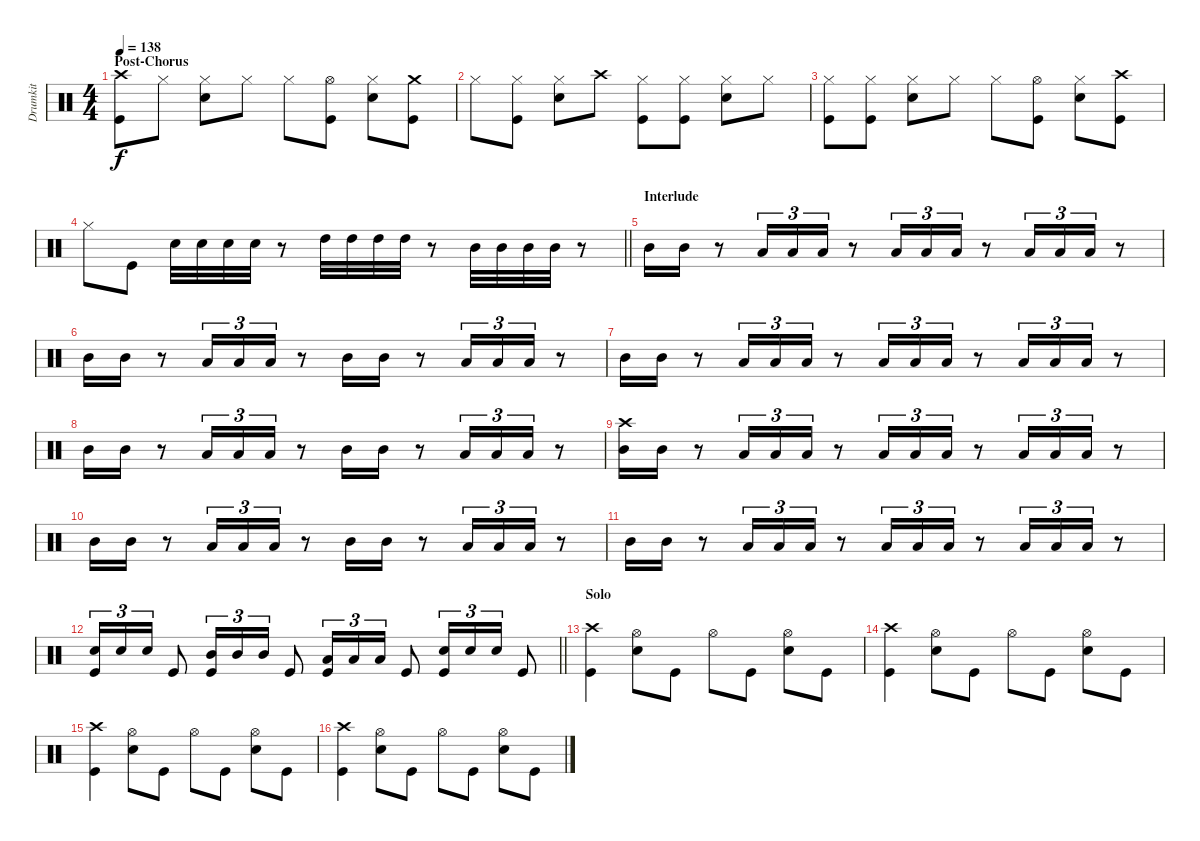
\track ("Drumkit" "Drumkit") {instrument percussion}
\staff {score}
\articulation defaults
\ts (4 4)
\section ("" "Post-Chorus")
\tempo 138
\clef neutral
\ks c
("Kick (hit)" "Crash high (hit)").8{dy f} "Hi-Hat (closed)".8 ("Snare (hit) 2" "Hi-Hat (closed)").8 "Hi-Hat (closed)".8 "Hi-Hat (closed)".8 ("Kick (hit)" "Hi-Hat (open)").8 ("Snare (hit) 2" "Hi-Hat (closed)").8 ("Kick (hit)" "Crash medium (hit)").8 |
"Hi-Hat (closed)".8 ("Hi-Hat (closed)" "Kick (hit)").8 ("Hi-Hat (closed)" "Snare (hit) 2").8 "Crash high (hit)".8 ("Hi-Hat (closed)" "Kick (hit)").8 ("Hi-Hat (closed)" "Kick (hit)").8 ("Snare (hit) 2" "Hi-Hat (closed)").8 "Hi-Hat (closed)".8 |
("Hi-Hat (closed)" "Kick (hit)").8 ("Hi-Hat (closed)" "Kick (hit)").8 ("Hi-Hat (closed)" "Snare (hit) 2").8 "Hi-Hat (closed)".8 "Hi-Hat (closed)".8 ("Hi-Hat (open)" "Kick (hit)").8 ("Hi-Hat (closed)" "Snare (hit) 2").8 ("Crash high (hit)" "Kick (hit)").8 |
\barLineRight lightlight "Hi-Hat (closed)".8 "Kick (hit)".8 "Snare (hit) 2".32 "Snare (hit) 2".32 "Snare (hit) 2".32 "Snare (hit) 2".32
r.8 "High Tom (hit)".32 "High Tom (hit)".32 "High Tom (hit)".32 "High Tom (hit)".32 r.8 "Mid Tom (hit)".32 "Mid Tom (hit)".32 "Mid Tom (hit)".32 "Mid Tom (hit)".32 r.8 |
\section ("" "Interlude")
"Mid Tom (hit)".16 "Mid Tom (hit)".16 r.8 "Low Tom (hit)".16{tu (3 2)} "Low Tom (hit)".16{tu (3 2)} "Low Tom (hit)".16{tu (3 2)} r.8 "Low Tom (hit)".16{tu (3 2)} "Low Tom (hit)".16{tu (3 2)} "Low Tom (hit)".16{tu (3 2)} r.8 "Low Tom (hit)".16{tu (3 2)} "Low Tom (hit)".16{tu (3 2)} "Low Tom (hit)".16{tu (3 2)} r.8 |
"Mid Tom (hit)".16 "Mid Tom (hit)".16 r.8 "Low Tom (hit)".16{tu (3 2)} "Low Tom (hit)".16{tu (3 2)} "Low Tom (hit)".16{tu (3 2)} r.8 "Mid Tom (hit)".16 "Mid Tom (hit)".16 r.8 "Low Tom (hit)".16{tu (3 2)} "Low Tom (hit)".16{tu (3 2)} "Low Tom (hit)".16{tu (3 2)} r.8 |
"Mid Tom (hit)".16 "Mid Tom (hit)".16 r.8 "Low Tom (hit)".16{tu (3 2)} "Low Tom (hit)".16{tu (3 2)} "Low Tom (hit)".16{tu (3 2)} r.8 "Low Tom (hit)".16{tu (3 2)} "Low Tom (hit)".16{tu (3 2)} "Low Tom (hit)".16{tu (3 2)} r.8 "Low Tom (hit)".16{tu (3 2)} "Low Tom (hit)".16{tu (3 2)} "Low Tom (hit)".16{tu (3 2)} r.8 |
"Mid Tom (hit)".16 "Mid Tom (hit)".16 r.8 "Low Tom (hit)".16{tu (3 2)} "Low Tom (hit)".16{tu (3 2)} "Low Tom (hit)".16{tu (3 2)} r.8 "Mid Tom (hit)".16 "Mid Tom (hit)".16 r.8 "Low Tom (hit)".16{tu (3 2)} "Low Tom (hit)".16{tu (3 2)} "Low Tom (hit)".16{tu (3 2)} r.8 |
("Mid Tom (hit)" "Crash high (hit)").16 "Mid Tom (hit)".16 r.8 "Low Tom (hit)".16{tu (3 2)} "Low Tom (hit)".16{tu (3 2)} "Low Tom (hit)".16{tu (3 2)} r.8 "Low Tom (hit)".16{tu (3 2)} "Low Tom (hit)".16{tu (3 2)} "Low Tom (hit)".16{tu (3 2)} r.8 "Low Tom (hit)".16{tu (3 2)} "Low Tom (hit)".16{tu (3 2)} "Low Tom (hit)".16{tu (3 2)} r.8 |
"Mid Tom (hit)".16 "Mid Tom (hit)".16 r.8 "Low Tom (hit)".16{tu (3 2)} "Low Tom (hit)".16{tu (3 2)} "Low Tom (hit)".16{tu (3 2)} r.8 "Mid Tom (hit)".16 "Mid Tom (hit)".16 r.8 "Low Tom (hit)".16{tu (3 2)} "Low Tom (hit)".16{tu (3 2)} "Low Tom (hit)".16{tu (3 2)} r.8 |
"Mid Tom (hit)".16 "Mid Tom (hit)".16 r.8 "Low Tom (hit)".16{tu (3 2)} "Low Tom (hit)".16{tu (3 2)} "Low Tom (hit)".16{tu (3 2)} r.8 "Low Tom (hit)".16{tu (3 2)} "Low Tom (hit)".16{tu (3 2)} "Low Tom (hit)".16{tu (3 2)} r.8 "Low Tom (hit)".16{tu (3 2)} "Low Tom (hit)".16{tu (3 2)} "Low Tom (hit)".16{tu (3 2)} r.8 |
\barLineRight lightlight
("Snare (hit) 2" "Kick (hit)").16{tu (3 2)} "Snare (hit) 2".16{tu (3 2)} "Snare (hit) 2".16{tu (3 2)} "Kick (hit)".8 ("Mid Tom (hit)" "Kick (hit)").16{tu (3 2)} "Mid Tom (hit)".16{tu (3 2)} "Mid Tom (hit)".16{tu (3 2)} "Kick (hit)".8 ("Low Tom (hit)" "Kick (hit)").16{tu (3 2)} "Low Tom (hit)".16{tu (3 2)} "Low Tom (hit)".16{tu (3 2)} "Kick (hit)".8 ("Snare (hit) 2" "Kick (hit)").16{tu (3 2)} "Snare (hit) 2".16{tu (3 2)} "Snare (hit) 2".16{tu (3 2)} "Kick (hit)".8 |
\section ("" "Solo")
("Kick (hit)" "Crash high (hit)").4 ("Snare (hit) 2" "Hi-Hat (open)").8 "Kick (hit)".8 "Hi-Hat (open)".8 "Kick (hit)".8 ("Snare (hit) 2" "Hi-Hat (open)").8 "Kick (hit)".8 |
("Kick (hit)" "Crash high (hit)").4 ("Snare (hit) 2" "Hi-Hat (open)").8 "Kick (hit)".8 "Hi-Hat (open)".8 "Kick (hit)".8 ("Snare (hit) 2" "Hi-Hat (open)").8 "Kick (hit)".8 |
("Kick (hit)" "Crash high (hit)").4 ("Snare (hit) 2" "Hi-Hat (open)").8 "Kick (hit)".8 "Hi-Hat (open)".8 "Kick (hit)".8 ("Snare (hit) 2" "Hi-Hat (open)").8 "Kick (hit)".8 |
("Kick (hit)" "Crash high (hit)").4 ("Snare (hit) 2" "Hi-Hat (open)").8 "Kick (hit)".8 "Hi-Hat (open)".8 "Kick (hit)".8 ("Snare (hit) 2" "Hi-Hat (open)").8 "Kick (hit)".8
